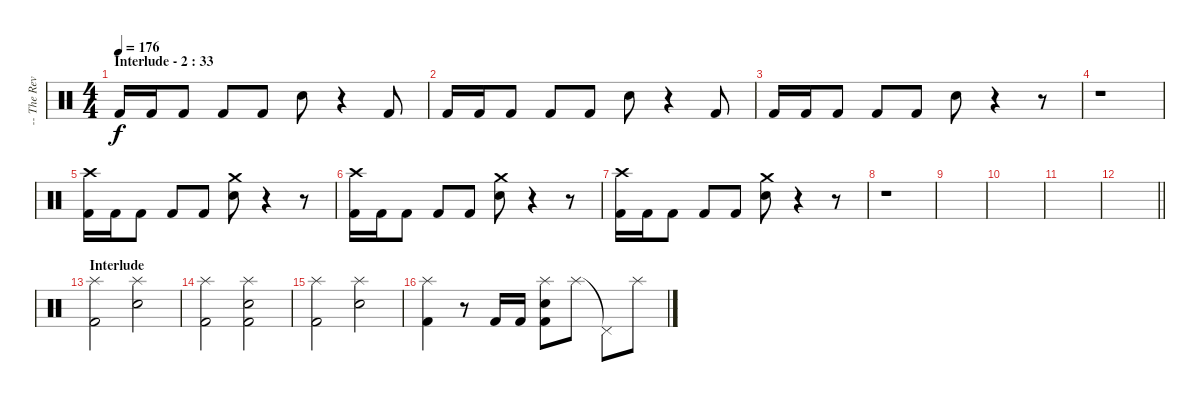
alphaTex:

\track ("-- The Reverend - Drums" "-- The Rev") {instrument percussion}
\staff {score}
\articulation defaults
\ts (4 4)
\section ("" "Interlude - 2 : 33")
\tempo 176
\clef neutral
\ks c "Kick (hit) 2".16{dy f} "Kick (hit) 2".16 "Kick (hit) 2".8 "Kick (hit) 2".8 "Kick (hit) 2".8 "Snare (hit) 2".8
r.4 "Kick (hit) 2".8 |
"Kick (hit) 2".16 "Kick (hit) 2".16 "Kick (hit) 2".8 "Kick (hit) 2".8 "Kick (hit) 2".8 "Snare (hit) 2".8 r.4 "Kick (hit) 2".8 |
"Kick (hit) 2".16 "Kick (hit) 2".16 "Kick (hit) 2".8 "Kick (hit) 2".8 "Kick (hit) 2".8 "Snare (hit) 2".8 r.4 r.8 |
r.1 |
("Crash high (hit)" "Kick (hit) 2").16 "Kick (hit) 2".16 "Kick (hit) 2".8 "Kick (hit) 2".8 "Kick (hit) 2".8 ("Crash medium (hit)" "Snare (hit) 2").8 r.4 r.8 |
("Crash high (hit)" "Kick (hit) 2").16 "Kick (hit) 2".16 "Kick (hit) 2".8 "Kick (hit) 2".8 "Kick (hit) 2".8 ("Crash medium (hit)" "Snare (hit) 2").8 r.4 r.8 |
("Crash high (hit)" "Kick (hit) 2").16 "Kick (hit) 2".16 "Kick (hit) 2".8 "Kick (hit) 2".8 "Kick (hit) 2".8 ("Crash medium (hit)" "Snare (hit) 2").8 r.4 r.8 |
r.1 |
|
|
|
\barLineRight lightlight
|
\section ("" "Interlude")
("Splash (hit)" "Kick (hit) 2").2 ("Splash (hit)" "Snare (hit) 2").2 |
("Splash (hit)" "Kick (hit) 2").2 ("Splash (hit)" "Snare (hit) 2" "Kick (hit) 2").2 |
("Splash (hit)" "Kick (hit) 2").2 ("Splash (hit)" "Snare (hit) 2").2 |
("Splash (hit)" "Kick (hit) 2").4 r.8 "Kick (hit) 2".16 "Kick (hit) 2".16 ("Splash (hit)" "Snare (hit) 2" "Kick (hit) 2").8 "Splash (hit)".8 "Pedal Hi-Hat (hit)"{t}.8 "Splash (hit)".8
